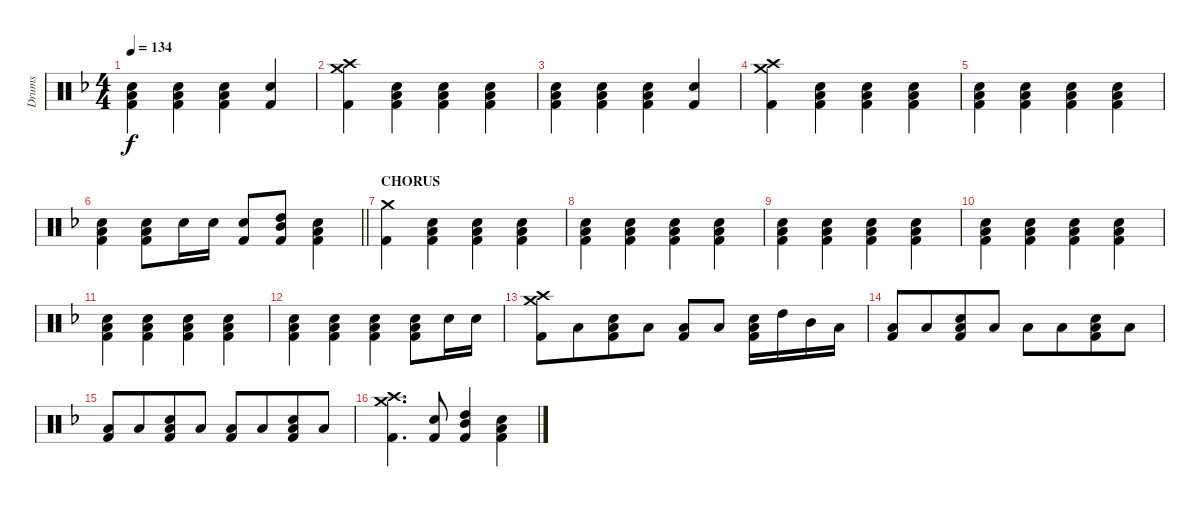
\track ("Drums" "Drums") {instrument percussion}
\staff {score}
\articulation defaults
\ts (4 4)
\tempo 134
\clef neutral
\ks f
("Low Tom (hit)" "Kick (hit) 2" "Snare (hit) 2").4{dy f} ("Low Tom (hit)" "Kick (hit) 2" "Snare (hit) 2").4 ("Low Tom (hit)" "Kick (hit) 2" "Snare (hit) 2").4 ("Kick (hit) 2" "Snare (hit) 2").4 |
("Crash medium (hit)" "Kick (hit) 2" "Crash high (hit)").4 ("Low Tom (hit)" "Kick (hit) 2" "Snare (hit) 2").4 ("Low Tom (hit)" "Kick (hit) 2" "Snare (hit) 2").4 ("Low Tom (hit)" "Kick (hit) 2" "Snare (hit) 2").4 |
("Low Tom (hit)" "Kick (hit) 2" "Snare (hit) 2").4 ("Low Tom (hit)" "Kick (hit) 2" "Snare (hit) 2").4 ("Low Tom (hit)" "Kick (hit) 2" "Snare (hit) 2").4 ("Kick (hit) 2" "Snare (hit) 2").4 |
("Crash medium (hit)" "Kick (hit) 2" "Crash high (hit)").4 ("Low Tom (hit)" "Kick (hit) 2" "Snare (hit) 2").4 ("Low Tom (hit)" "Kick (hit) 2" "Snare (hit) 2").4 ("Low Tom (hit)" "Kick (hit) 2" "Snare (hit) 2").4 |
("Low Tom (hit)" "Kick (hit) 2" "Snare (hit) 2").4 ("Low Tom (hit)" "Kick (hit) 2" "Snare (hit) 2").4 ("Low Tom (hit)" "Kick (hit) 2" "Snare (hit) 2").4 ("Low Tom (hit)" "Kick (hit) 2" "Snare (hit) 2").4 |
\barLineRight lightlight
("Low Tom (hit)" "Kick (hit) 2" "Snare (hit) 2").4 ("Low Tom (hit)" "Kick (hit) 2" "Snare (hit) 2").8 "Snare (hit) 2".16 "Snare (hit) 2".16 ("Snare (hit) 2" "Kick (hit) 2").8 ("High Tom (hit)" "Kick (hit) 2" "Mid Tom (hit)").8 ("Snare (hit) 2" "Kick (hit) 2" "Low Tom (hit)").4 |
\section ("" "CHORUS")
("Crash medium (hit)" "Kick (hit) 2").4 ("Low Tom (hit)" "Kick (hit) 2" "Snare (hit) 2").4 ("Low Tom (hit)" "Kick (hit) 2" "Snare (hit) 2").4 ("Low Tom (hit)" "Kick (hit) 2" "Snare (hit) 2").4 |
("Low Tom (hit)" "Kick (hit) 2" "Snare (hit) 2").4 ("Low Tom (hit)" "Kick (hit) 2" "Snare (hit) 2").4 ("Low Tom (hit)" "Kick (hit) 2" "Snare (hit) 2").4 ("Low Tom (hit)" "Kick (hit) 2" "Snare (hit) 2").4 |
("Low Tom (hit)" "Kick (hit) 2" "Snare (hit) 2").4 ("Low Tom (hit)" "Kick (hit) 2" "Snare (hit) 2").4 ("Low Tom (hit)" "Kick (hit) 2" "Snare (hit) 2").4 ("Low Tom (hit)" "Kick (hit) 2" "Snare (hit) 2").4 |
("Low Tom (hit)" "Kick (hit) 2" "Snare (hit) 2").4 ("Low Tom (hit)" "Kick (hit) 2" "Snare (hit) 2").4 ("Low Tom (hit)" "Kick (hit) 2" "Snare (hit) 2").4 ("Low Tom (hit)" "Kick (hit) 2" "Snare (hit) 2").4 |
("Low Tom (hit)" "Kick (hit) 2" "Snare (hit) 2").4 ("Low Tom (hit)" "Kick (hit) 2" "Snare (hit) 2").4 ("Low Tom (hit)" "Kick (hit) 2" "Snare (hit) 2").4 ("Low Tom (hit)" "Kick (hit) 2" "Snare (hit) 2").4 |
("Low Tom (hit)" "Kick (hit) 2" "Snare (hit) 2").4 ("Low Tom (hit)" "Kick (hit) 2" "Snare (hit) 2").4 ("Low Tom (hit)" "Kick (hit) 2" "Snare (hit) 2").4 ("Low Tom (hit)" "Kick (hit) 2" "Snare (hit) 2").8 "Snare (hit) 2".16 "Snare (hit) 2".16 |
("Crash high (hit)" "Crash medium (hit)" "Kick (hit) 2").8 "Low Tom (hit)".8{beam merge} ("Low Tom (hit)" "Snare (hit) 2" "Kick (hit) 2").8 "Low Tom (hit)".8 ("Low Tom (hit)" "Kick (hit) 2").8 "Low Tom (hit)".8 ("Low Tom (hit)" "Snare (hit) 2" "Kick (hit) 2").16 "High Tom (hit)".16 "Mid Tom (hit)".16 "Low Tom (hit)".16 |
("Low Tom (hit)" "Kick (hit) 2").8 "Low Tom (hit)".8{beam merge} ("Low Tom (hit)" "Snare (hit) 2" "Kick (hit) 2").8 "Low Tom (hit)".8 "Low Tom (hit)".8 "Low Tom (hit)".8{beam merge} ("Low Tom (hit)" "Snare (hit) 2" "Kick (hit) 2").8 "Low Tom (hit)".8 |
("Low Tom (hit)" "Kick (hit) 2").8 "Low Tom (hit)".8{beam merge} ("Low Tom (hit)" "Kick (hit) 2" "Snare (hit) 2").8 "Low Tom (hit)".8 ("Low Tom (hit)" "Kick (hit) 2").8 "Low Tom (hit)".8{beam merge} ("Low Tom (hit)" "Snare (hit) 2" "Kick (hit) 2").8 "Low Tom (hit)".8 |
("Kick (hit) 2" "Crash medium (hit)" "Crash high (hit)").4{d} ("Snare (hit) 2" "Kick (hit) 2").8 ("High Tom (hit)" "Kick (hit) 2" "Mid Tom (hit)").4 ("Snare (hit) 2" "Kick (hit) 2" "Low Tom (hit)").4
